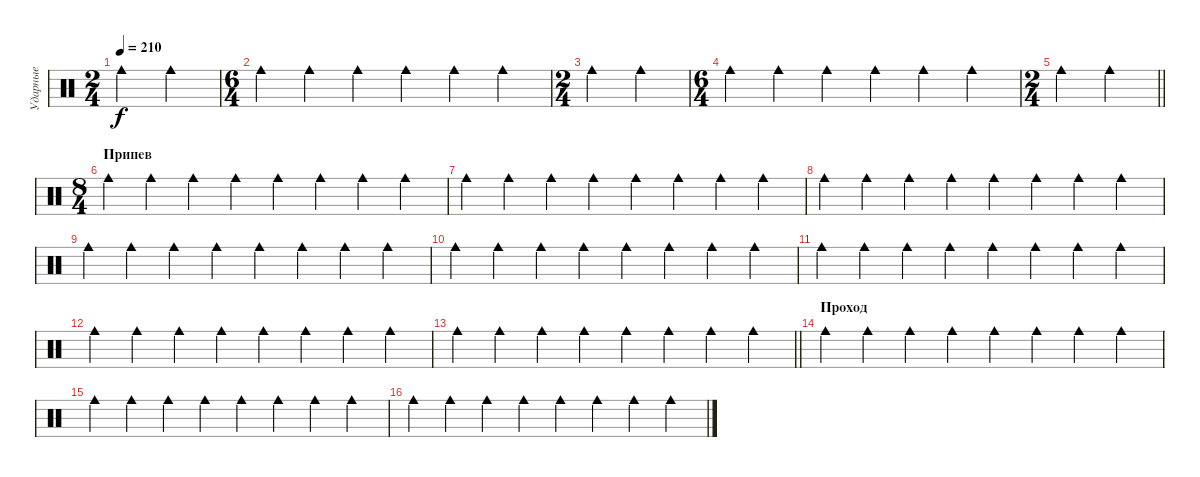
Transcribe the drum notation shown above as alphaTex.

\track ("Ударные" "Ударные") {mute instrument percussion}
\staff {score}
\articulation defaults
\ts (2 4)
\tempo 210
\clef neutral
\ks c "Cowbell medium (hit)".4{dy f} "Cowbell medium (hit)".4
|
\ts (6 4)
"Cowbell medium (hit)".4 "Cowbell medium (hit)".4 "Cowbell medium (hit)".4 "Cowbell medium (hit)".4 "Cowbell medium (hit)".4 "Cowbell medium (hit)".4 |
\ts (2 4)
"Cowbell medium (hit)".4 "Cowbell medium (hit)".4 |
\ts (6 4)
"Cowbell medium (hit)".4 "Cowbell medium (hit)".4 "Cowbell medium (hit)".4 "Cowbell medium (hit)".4 "Cowbell medium (hit)".4 "Cowbell medium (hit)".4 |
\ts (2 4)
\barLineRight lightlight "Cowbell medium (hit)".4 "Cowbell medium (hit)".4
|
\ts (8 4)
\section ("" "Припев")
"Cowbell medium (hit)".4 "Cowbell medium (hit)".4 "Cowbell medium (hit)".4 "Cowbell medium (hit)".4 "Cowbell medium (hit)".4 "Cowbell medium (hit)".4 "Cowbell medium (hit)".4 "Cowbell medium (hit)".4 |
"Cowbell medium (hit)".4 "Cowbell medium (hit)".4 "Cowbell medium (hit)".4 "Cowbell medium (hit)".4 "Cowbell medium (hit)".4 "Cowbell medium (hit)".4 "Cowbell medium (hit)".4 "Cowbell medium (hit)".4 |
"Cowbell medium (hit)".4 "Cowbell medium (hit)".4 "Cowbell medium (hit)".4 "Cowbell medium (hit)".4 "Cowbell medium (hit)".4 "Cowbell medium (hit)".4 "Cowbell medium (hit)".4 "Cowbell medium (hit)".4 |
"Cowbell medium (hit)".4 "Cowbell medium (hit)".4 "Cowbell medium (hit)".4 "Cowbell medium (hit)".4 "Cowbell medium (hit)".4 "Cowbell medium (hit)".4 "Cowbell medium (hit)".4 "Cowbell medium (hit)".4 |
"Cowbell medium (hit)".4 "Cowbell medium (hit)".4 "Cowbell medium (hit)".4 "Cowbell medium (hit)".4 "Cowbell medium (hit)".4 "Cowbell medium (hit)".4 "Cowbell medium (hit)".4 "Cowbell medium (hit)".4 |
"Cowbell medium (hit)".4 "Cowbell medium (hit)".4 "Cowbell medium (hit)".4 "Cowbell medium (hit)".4 "Cowbell medium (hit)".4 "Cowbell medium (hit)".4 "Cowbell medium (hit)".4 "Cowbell medium (hit)".4 |
"Cowbell medium (hit)".4 "Cowbell medium (hit)".4 "Cowbell medium (hit)".4 "Cowbell medium (hit)".4 "Cowbell medium (hit)".4 "Cowbell medium (hit)".4 "Cowbell medium (hit)".4 "Cowbell medium (hit)".4 |
\barLineRight lightlight "Cowbell medium (hit)".4 "Cowbell medium (hit)".4 "Cowbell medium (hit)".4 "Cowbell medium (hit)".4 "Cowbell medium (hit)".4 "Cowbell medium (hit)".4 "Cowbell medium (hit)".4 "Cowbell medium (hit)".4
|
\section ("" "Проход")
"Cowbell medium (hit)".4 "Cowbell medium (hit)".4 "Cowbell medium (hit)".4 "Cowbell medium (hit)".4 "Cowbell medium (hit)".4 "Cowbell medium (hit)".4 "Cowbell medium (hit)".4 "Cowbell medium (hit)".4 |
"Cowbell medium (hit)".4 "Cowbell medium (hit)".4 "Cowbell medium (hit)".4 "Cowbell medium (hit)".4 "Cowbell medium (hit)".4 "Cowbell medium (hit)".4 "Cowbell medium (hit)".4 "Cowbell medium (hit)".4 |
"Cowbell medium (hit)".4 "Cowbell medium (hit)".4 "Cowbell medium (hit)".4 "Cowbell medium (hit)".4 "Cowbell medium (hit)".4 "Cowbell medium (hit)".4 "Cowbell medium (hit)".4 "Cowbell medium (hit)".4
